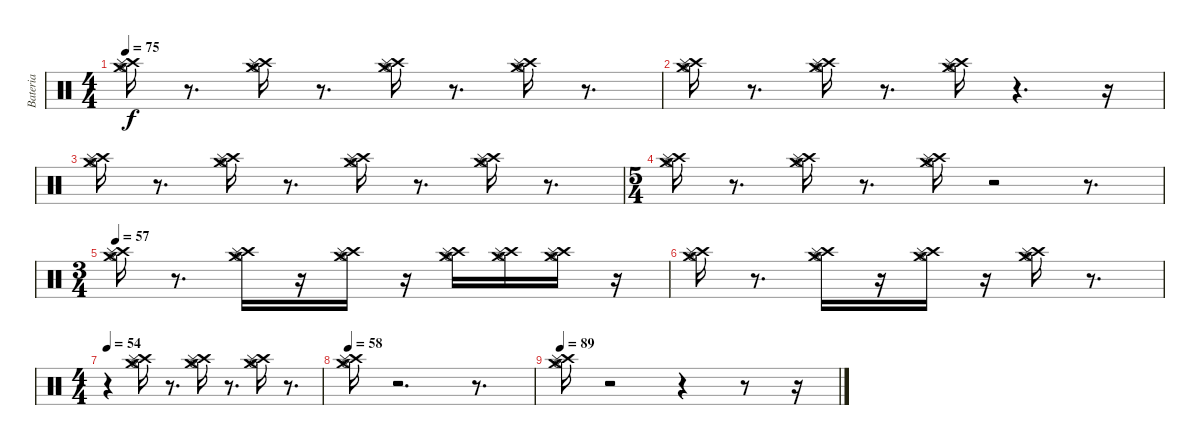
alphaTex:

\track ("Bateria" "Bateria") {instrument percussion}
\staff {score}
\articulation defaults
\ts (4 4)
\tempo 75
\clef neutral
\ks c
("Crash high (hit)" "Crash medium (hit)" "Hi-Hat (open)" "Splash (hit)").16{dy f} r.8{d} ("Crash high (hit)" "Crash medium (hit)" "Hi-Hat (open)" "Splash (hit)").16 r.8{d} ("Crash high (hit)" "Crash medium (hit)" "Hi-Hat (open)" "Splash (hit)").16 r.8{d} ("Crash high (hit)" "Crash medium (hit)" "Hi-Hat (open)" "Splash (hit)").16 r.8{d} |
("Crash high (hit)" "Crash medium (hit)" "Hi-Hat (open)" "Splash (hit)").16 r.8{d} ("Crash high (hit)" "Crash medium (hit)" "Hi-Hat (open)" "Splash (hit)").16 r.8{d} ("Crash high (hit)" "Crash medium (hit)" "Hi-Hat (open)" "Splash (hit)").16 r.4{d} r.16 |
("Crash high (hit)" "Crash medium (hit)" "Hi-Hat (open)" "Splash (hit)").16 r.8{d} ("Crash high (hit)" "Crash medium (hit)" "Hi-Hat (open)" "Splash (hit)").16 r.8{d} ("Crash high (hit)" "Crash medium (hit)" "Hi-Hat (open)" "Splash (hit)").16 r.8{d} ("Crash high (hit)" "Crash medium (hit)" "Hi-Hat (open)" "Splash (hit)").16 r.8{d} |
\ts (5 4)
("Crash high (hit)" "Crash medium (hit)" "Hi-Hat (open)" "Splash (hit)").16 r.8{d} ("Crash high (hit)" "Crash medium (hit)" "Hi-Hat (open)" "Splash (hit)").16 r.8{d} ("Crash high (hit)" "Crash medium (hit)" "Hi-Hat (open)" "Splash (hit)").16 r.2 r.8{d} |
\ts (3 4)
\tempo 57
("Crash high (hit)" "Crash medium (hit)" "Hi-Hat (open)" "Splash (hit)").16 r.8{d} ("Crash high (hit)" "Crash medium (hit)" "Hi-Hat (open)" "Splash (hit)").16 r.16 ("Crash high (hit)" "Crash medium (hit)" "Hi-Hat (open)" "Splash (hit)").16 r.16 ("Crash high (hit)" "Crash medium (hit)" "Hi-Hat (open)" "Splash (hit)").16 ("Crash high (hit)" "Crash medium (hit)" "Hi-Hat (open)" "Splash (hit)").16 ("Crash high (hit)" "Crash medium (hit)" "Hi-Hat (open)" "Splash (hit)").16 r.16 |
("Crash high (hit)" "Crash medium (hit)" "Hi-Hat (open)" "Splash (hit)").16 r.8{d} ("Crash high (hit)" "Crash medium (hit)" "Hi-Hat (open)" "Splash (hit)").16 r.16 ("Crash high (hit)" "Crash medium (hit)" "Hi-Hat (open)" "Splash (hit)").16 r.16 ("Crash high (hit)" "Crash medium (hit)" "Hi-Hat (open)" "Splash (hit)").16 r.8{d} |
\ts (4 4)
\tempo 54
r.4 ("Crash high (hit)" "Crash medium (hit)" "Hi-Hat (open)" "Splash (hit)").16 r.8{d} ("Crash high (hit)" "Crash medium (hit)" "Hi-Hat (open)" "Splash (hit)").16 r.8{d} ("Crash high (hit)" "Crash medium (hit)" "Hi-Hat (open)" "Splash (hit)").16 r.8{d} |
\tempo 58
("Crash high (hit)" "Crash medium (hit)" "Hi-Hat (open)" "Splash (hit)").16 r.2{d} r.8{d} |
\tempo 89
("Crash high (hit)" "Crash medium (hit)" "Hi-Hat (open)" "Splash (hit)").16 r.2 r.4 r.8 r.16
